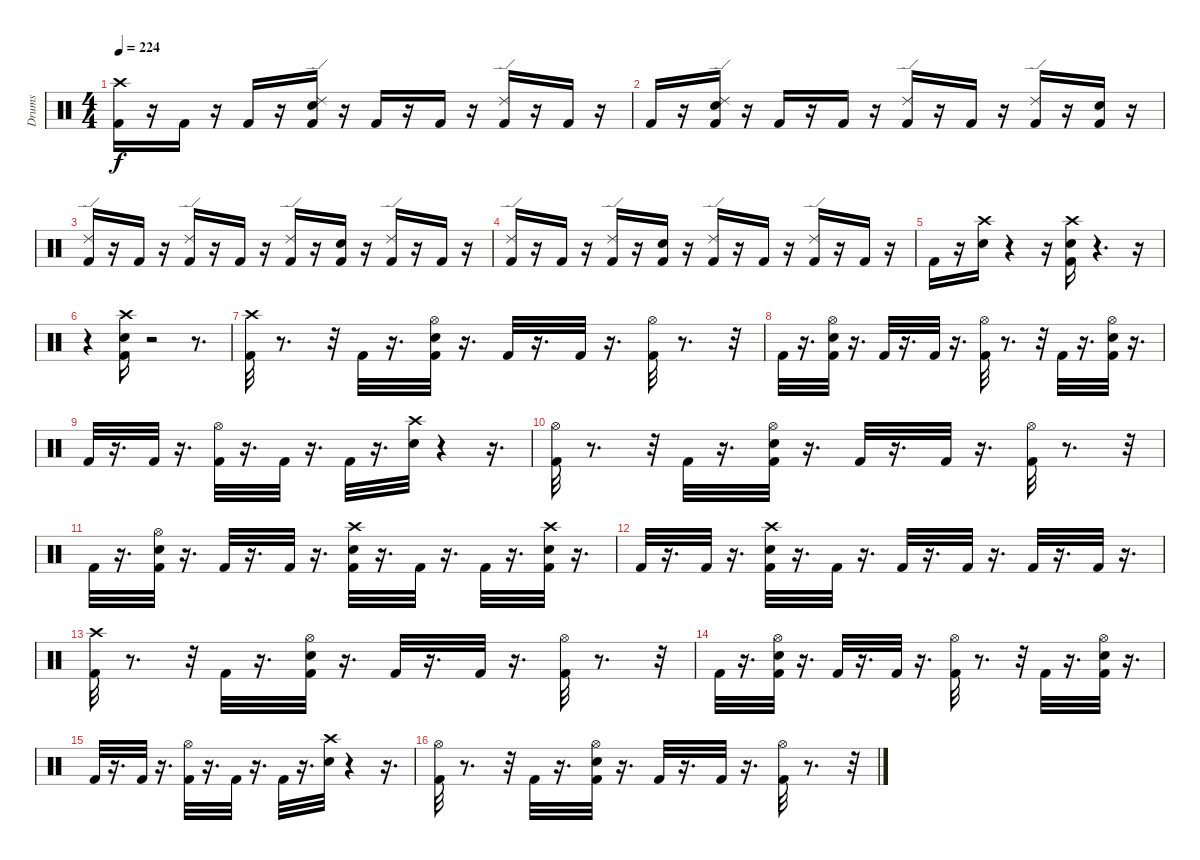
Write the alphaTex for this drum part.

\track ("Drums" "Drums") {instrument percussion}
\staff {score}
\articulation defaults
\ts (4 4)
\tempo 224
\clef neutral
\ks c
("Crash high (hit)" "Kick (hit) 2").16{dy f} r.16 "Kick (hit) 2".16 r.16 "Kick (hit) 2".16 r.16 ("Snare (hit) 2" "Ride (edge) 2" "Kick (hit) 2").16 r.16 "Kick (hit) 2".16 r.16 "Kick (hit) 2".16 r.16 ("Ride (edge) 2" "Kick (hit) 2").16 r.16 "Kick (hit) 2".16 r.16 |
"Kick (hit) 2".16 r.16 ("Ride (edge) 2" "Kick (hit) 2" "Snare (hit) 2").16 r.16 "Kick (hit) 2".16 r.16 "Kick (hit) 2".16 r.16 ("Ride (edge) 2" "Kick (hit) 2").16 r.16 "Kick (hit) 2".16 r.16 ("Ride (edge) 2" "Kick (hit) 2").16 r.16 ("Snare (hit) 2" "Kick (hit) 2").16 r.16 |
("Ride (edge) 2" "Kick (hit) 2").16 r.16 "Kick (hit) 2".16 r.16 ("Ride (edge) 2" "Kick (hit) 2").16 r.16 "Kick (hit) 2".16 r.16 ("Ride (edge) 2" "Kick (hit) 2").16 r.16 ("Kick (hit) 2" "Snare (hit) 2").16 r.16 ("Ride (edge) 2" "Kick (hit) 2").16 r.16 "Kick (hit) 2".16 r.16 |
("Ride (edge) 2" "Kick (hit) 2").16 r.16 "Kick (hit) 2".16 r.16 ("Ride (edge) 2" "Kick (hit) 2").16 r.16 ("Snare (hit) 2" "Kick (hit) 2").16 r.16 ("Ride (edge) 2" "Kick (hit) 2").16 r.16 "Kick (hit) 2".16 r.16 ("Ride (edge) 2" "Kick (hit) 2").16 r.16 "Kick (hit) 2".16 r.16 |
"Kick (hit) 2".16 r.16 ("Snare (hit) 2" "Crash high (hit)").16 r.4 r.16 ("Kick (hit) 2" "Snare (hit) 2" "Crash high (hit)").16 r.4{d} r.16 |
r.4 ("Kick (hit) 2" "Snare (hit) 2" "Crash high (hit)").16 r.2 r.8{d} |
("Crash high (hit)" "Kick (hit) 2").32 r.8{d} r.32 "Kick (hit) 2".32 r.16{d} ("Kick (hit) 2" "Hi-Hat (open)" "Snare (hit) 2").32 r.16{d} "Kick (hit) 2".32 r.16{d} "Kick (hit) 2".32 r.16{d} ("Hi-Hat (open)" "Kick (hit) 2").32 r.8{d} r.32 |
"Kick (hit) 2".32 r.16{d} ("Kick (hit) 2" "Hi-Hat (open)" "Snare (hit) 2").32 r.16{d} "Kick (hit) 2".32 r.16{d} "Kick (hit) 2".32 r.16{d} ("Hi-Hat (open)" "Kick (hit) 2").32 r.8{d} r.32 "Kick (hit) 2".32 r.16{d} ("Kick (hit) 2" "Hi-Hat (open)" "Snare (hit) 2").32 r.16{d} |
"Kick (hit) 2".32 r.16{d} "Kick (hit) 2".32 r.16{d} ("Hi-Hat (open)" "Kick (hit) 2").32 r.16{d} "Kick (hit) 2".32 r.16{d} "Kick (hit) 2".32 r.16{d} ("Crash high (hit)" "Snare (hit) 2").32 r.4 r.16{d} |
("Hi-Hat (open)" "Kick (hit) 2").32 r.8{d} r.32 "Kick (hit) 2".32 r.16{d} ("Kick (hit) 2" "Hi-Hat (open)" "Snare (hit) 2").32 r.16{d} "Kick (hit) 2".32 r.16{d} "Kick (hit) 2".32 r.16{d} ("Hi-Hat (open)" "Kick (hit) 2").32 r.8{d} r.32 |
"Kick (hit) 2".32 r.16{d} ("Kick (hit) 2" "Hi-Hat (open)" "Snare (hit) 2").32 r.16{d} "Kick (hit) 2".32 r.16{d} "Kick (hit) 2".32 r.16{d} ("Kick (hit) 2" "Snare (hit) 2" "Crash high (hit)").32 r.16{d} "Kick (hit) 2".32 r.16{d} "Kick (hit) 2".32 r.16{d} ("Kick (hit) 2" "Snare (hit) 2" "Crash high (hit)").32 r.16{d} |
"Kick (hit) 2".32 r.16{d} "Kick (hit) 2".32 r.16{d} ("Kick (hit) 2" "Snare (hit) 2" "Crash high (hit)").32 r.16{d} "Kick (hit) 2".32 r.16{d} "Kick (hit) 2".32 r.16{d} "Kick (hit) 2".32 r.16{d} "Kick (hit) 2".32 r.16{d} "Kick (hit) 2".32 r.16{d} |
("Crash high (hit)" "Kick (hit) 2").32 r.8{d} r.32 "Kick (hit) 2".32 r.16{d} ("Kick (hit) 2" "Hi-Hat (open)" "Snare (hit) 2").32 r.16{d} "Kick (hit) 2".32 r.16{d} "Kick (hit) 2".32 r.16{d} ("Hi-Hat (open)" "Kick (hit) 2").32 r.8{d} r.32 |
"Kick (hit) 2".32 r.16{d} ("Kick (hit) 2" "Hi-Hat (open)" "Snare (hit) 2").32 r.16{d} "Kick (hit) 2".32 r.16{d} "Kick (hit) 2".32 r.16{d} ("Hi-Hat (open)" "Kick (hit) 2").32 r.8{d} r.32 "Kick (hit) 2".32 r.16{d} ("Kick (hit) 2" "Hi-Hat (open)" "Snare (hit) 2").32 r.16{d} |
"Kick (hit) 2".32 r.16{d} "Kick (hit) 2".32 r.16{d} ("Hi-Hat (open)" "Kick (hit) 2").32 r.16{d} "Kick (hit) 2".32 r.16{d} "Kick (hit) 2".32 r.16{d} ("Crash high (hit)" "Snare (hit) 2").32 r.4 r.16{d} |
("Hi-Hat (open)" "Kick (hit) 2").32 r.8{d} r.32 "Kick (hit) 2".32 r.16{d} ("Kick (hit) 2" "Hi-Hat (open)" "Snare (hit) 2").32 r.16{d} "Kick (hit) 2".32 r.16{d} "Kick (hit) 2".32 r.16{d} ("Hi-Hat (open)" "Kick (hit) 2").32 r.8{d} r.32
